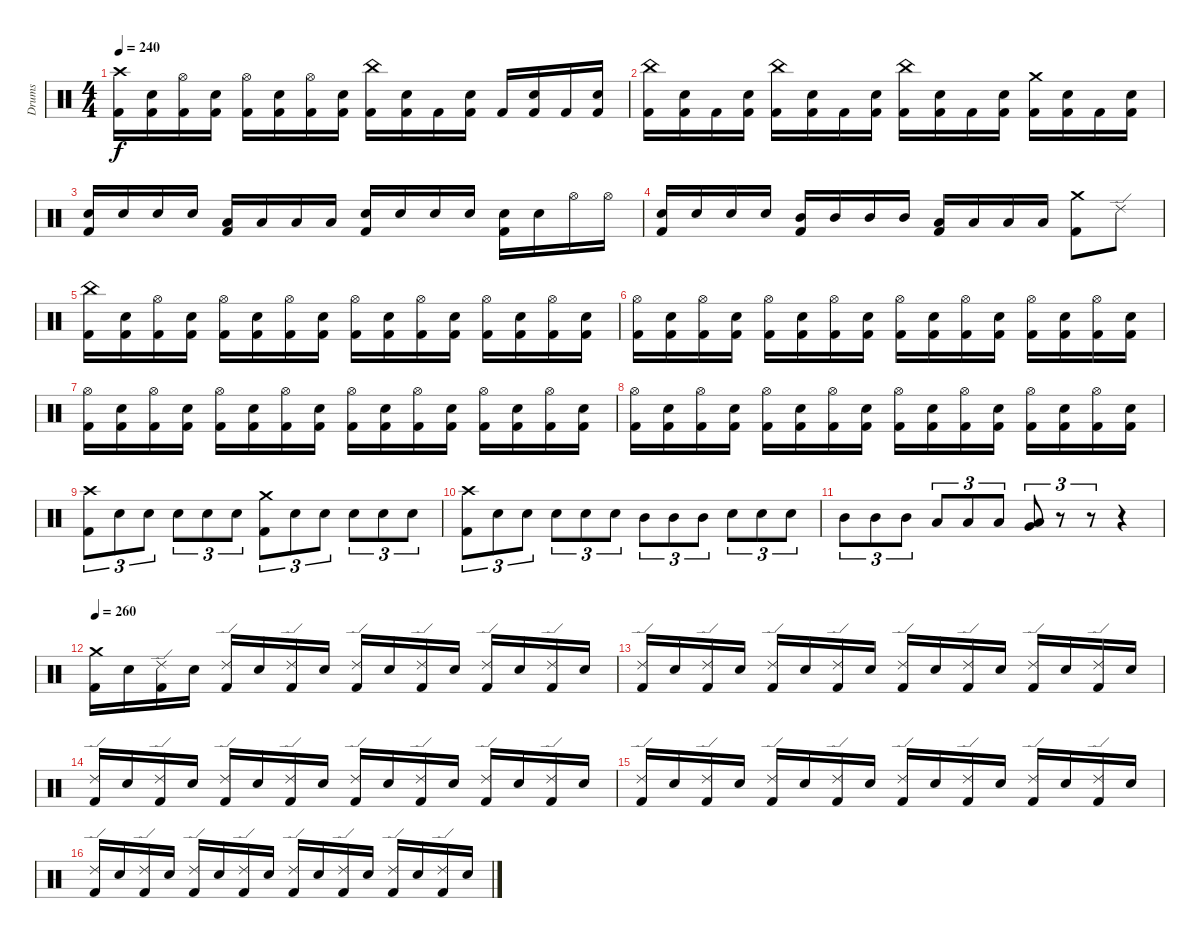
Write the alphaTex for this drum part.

\track ("Drums" "Drums") {instrument percussion}
\staff {score}
\articulation defaults
\ts (4 4)
\tempo 240
\clef neutral
\ks c
("Crash high (hit)" "Kick (hit) 2").16{dy f} ("Snare (hit) 2" "Kick (hit) 2").16 ("Hi-Hat (open)" "Kick (hit) 2").16 ("Snare (hit) 2" "Kick (hit) 2").16 ("Hi-Hat (open)" "Kick (hit) 2").16 ("Snare (hit) 2" "Kick (hit) 2").16 ("Hi-Hat (open)" "Kick (hit) 2").16 ("Snare (hit) 2" "Kick (hit) 2").16 ("China (hit)" "Kick (hit) 2").16 ("Snare (hit) 2" "Kick (hit) 2").16 "Kick (hit) 2".16 ("Snare (hit) 2" "Kick (hit) 2").16 "Kick (hit) 2".16 ("Snare (hit) 2" "Kick (hit) 2").16 "Kick (hit) 2".16 ("Snare (hit) 2" "Kick (hit) 2").16 |
("China (hit)" "Kick (hit) 2").16 ("Snare (hit) 2" "Kick (hit) 2").16 "Kick (hit) 2".16 ("Snare (hit) 2" "Kick (hit) 2").16 ("China (hit)" "Kick (hit) 2").16 ("Snare (hit) 2" "Kick (hit) 2").16 "Kick (hit) 2".16 ("Snare (hit) 2" "Kick (hit) 2").16 ("China (hit)" "Kick (hit) 2").16 ("Snare (hit) 2" "Kick (hit) 2").16 "Kick (hit) 2".16 ("Snare (hit) 2" "Kick (hit) 2").16 ("Crash medium (hit)" "Kick (hit) 2").16 ("Snare (hit) 2" "Kick (hit) 2").16 "Kick (hit) 2".16 ("Snare (hit) 2" "Kick (hit) 2").16 |
("Snare (hit) 2" "Kick (hit) 2").16 "Snare (hit) 2".16 "Snare (hit) 2".16 "Snare (hit) 2".16 ("Low Tom (hit)" "Kick (hit) 2").16 "Low Tom (hit)".16 "Low Tom (hit)".16 "Low Tom (hit)".16 ("Snare (hit) 2" "Kick (hit) 2").16 "Snare (hit) 2".16 "Snare (hit) 2".16 "Snare (hit) 2".16 ("Snare (hit) 2" "Kick (hit) 2").16 "Snare (hit) 2".16 "Hi-Hat (open)".16 "Hi-Hat (open)".16 |
("Snare (hit) 2" "Kick (hit) 2").16 "Snare (hit) 2".16 "Snare (hit) 2".16 "Snare (hit) 2".16 ("Mid Tom (hit)" "Kick (hit) 2").16 "Mid Tom (hit)".16 "Mid Tom (hit)".16 "Mid Tom (hit)".16 ("Low Tom (hit)" "Kick (hit) 2").16 "Low Tom (hit)".16 "Low Tom (hit)".16 "Low Tom (hit)".16 ("Crash medium (hit)" "Kick (hit) 2").8 "Ride (edge) 2".8 |
("China (hit)" "Kick (hit) 2").16 ("Snare (hit) 2" "Kick (hit) 2").16 ("Hi-Hat (open)" "Kick (hit) 2").16 ("Snare (hit) 2" "Kick (hit) 2").16 ("Hi-Hat (open)" "Kick (hit) 2").16 ("Snare (hit) 2" "Kick (hit) 2").16 ("Hi-Hat (open)" "Kick (hit) 2").16 ("Snare (hit) 2" "Kick (hit) 2").16 ("Hi-Hat (open)" "Kick (hit) 2").16 ("Snare (hit) 2" "Kick (hit) 2").16 ("Hi-Hat (open)" "Kick (hit) 2").16 ("Snare (hit) 2" "Kick (hit) 2").16 ("Hi-Hat (open)" "Kick (hit) 2").16 ("Snare (hit) 2" "Kick (hit) 2").16 ("Hi-Hat (open)" "Kick (hit) 2").16 ("Snare (hit) 2" "Kick (hit) 2").16 |
("Hi-Hat (open)" "Kick (hit) 2").16 ("Snare (hit) 2" "Kick (hit) 2").16 ("Hi-Hat (open)" "Kick (hit) 2").16 ("Snare (hit) 2" "Kick (hit) 2").16 ("Hi-Hat (open)" "Kick (hit) 2").16 ("Snare (hit) 2" "Kick (hit) 2").16 ("Hi-Hat (open)" "Kick (hit) 2").16 ("Snare (hit) 2" "Kick (hit) 2").16 ("Hi-Hat (open)" "Kick (hit) 2").16 ("Snare (hit) 2" "Kick (hit) 2").16 ("Hi-Hat (open)" "Kick (hit) 2").16 ("Snare (hit) 2" "Kick (hit) 2").16 ("Hi-Hat (open)" "Kick (hit) 2").16 ("Snare (hit) 2" "Kick (hit) 2").16 ("Hi-Hat (open)" "Kick (hit) 2").16 ("Snare (hit) 2" "Kick (hit) 2").16 |
("Hi-Hat (open)" "Kick (hit) 2").16 ("Snare (hit) 2" "Kick (hit) 2").16 ("Hi-Hat (open)" "Kick (hit) 2").16 ("Snare (hit) 2" "Kick (hit) 2").16 ("Hi-Hat (open)" "Kick (hit) 2").16 ("Snare (hit) 2" "Kick (hit) 2").16 ("Hi-Hat (open)" "Kick (hit) 2").16 ("Snare (hit) 2" "Kick (hit) 2").16 ("Hi-Hat (open)" "Kick (hit) 2").16 ("Snare (hit) 2" "Kick (hit) 2").16 ("Hi-Hat (open)" "Kick (hit) 2").16 ("Snare (hit) 2" "Kick (hit) 2").16 ("Hi-Hat (open)" "Kick (hit) 2").16 ("Snare (hit) 2" "Kick (hit) 2").16 ("Hi-Hat (open)" "Kick (hit) 2").16 ("Snare (hit) 2" "Kick (hit) 2").16 |
("Hi-Hat (open)" "Kick (hit) 2").16 ("Snare (hit) 2" "Kick (hit) 2").16 ("Hi-Hat (open)" "Kick (hit) 2").16 ("Snare (hit) 2" "Kick (hit) 2").16 ("Hi-Hat (open)" "Kick (hit) 2").16 ("Snare (hit) 2" "Kick (hit) 2").16 ("Hi-Hat (open)" "Kick (hit) 2").16 ("Snare (hit) 2" "Kick (hit) 2").16 ("Hi-Hat (open)" "Kick (hit) 2").16 ("Snare (hit) 2" "Kick (hit) 2").16 ("Hi-Hat (open)" "Kick (hit) 2").16 ("Snare (hit) 2" "Kick (hit) 2").16 ("Hi-Hat (open)" "Kick (hit) 2").16 ("Snare (hit) 2" "Kick (hit) 2").16 ("Hi-Hat (open)" "Kick (hit) 2").16 ("Snare (hit) 2" "Kick (hit) 2").16 |
("Crash high (hit)" "Kick (hit) 2").8{tu (3 2)} "Snare (hit) 2".8{tu (3 2)} "Snare (hit) 2".8{tu (3 2)} "Snare (hit) 2".8{tu (3 2)} "Snare (hit) 2".8{tu (3 2)} "Snare (hit) 2".8{tu (3 2)} ("Crash medium (hit)" "Kick (hit) 2").8{tu (3 2)} "Snare (hit) 2".8{tu (3 2)} "Snare (hit) 2".8{tu (3 2)} "Snare (hit) 2".8{tu (3 2)} "Snare (hit) 2".8{tu (3 2)} "Snare (hit) 2".8{tu (3 2)} |
("Crash high (hit)" "Kick (hit) 2").8{tu (3 2)} "Snare (hit) 2".8{tu (3 2)} "Snare (hit) 2".8{tu (3 2)} "Snare (hit) 2".8{tu (3 2)} "Snare (hit) 2".8{tu (3 2)} "Snare (hit) 2".8{tu (3 2)} "Mid Tom (hit)".8{tu (3 2)} "Mid Tom (hit)".8{tu (3 2)} "Mid Tom (hit)".8{tu (3 2)} "Snare (hit) 2".8{tu (3 2)} "Snare (hit) 2".8{tu (3 2)} "Snare (hit) 2".8{tu (3 2)} |
"Mid Tom (hit)".8{tu (3 2)} "Mid Tom (hit)".8{tu (3 2)} "Mid Tom (hit)".8{tu (3 2)} "Low Tom (hit)".8{tu (3 2)} "Low Tom (hit)".8{tu (3 2)} "Low Tom (hit)".8{tu (3 2)} ("Very Low Tom (hit)" "Low Floor Tom (hit)").8{tu (3 2)} r.8{tu (3 2)} r.8{tu (3 2)} r.4 |
\tempo 260
("Crash medium (hit)" "Kick (hit) 2").16 "Snare (hit) 2".16 ("Ride (edge) 2" "Kick (hit) 2").16 "Snare (hit) 2".16 ("Ride (edge) 2" "Kick (hit) 2").16 "Snare (hit) 2".16 ("Ride (edge) 2" "Kick (hit) 2").16 "Snare (hit) 2".16 ("Ride (edge) 2" "Kick (hit) 2").16 "Snare (hit) 2".16 ("Ride (edge) 2" "Kick (hit) 2").16 "Snare (hit) 2".16 ("Ride (edge) 2" "Kick (hit) 2").16 "Snare (hit) 2".16 ("Ride (edge) 2" "Kick (hit) 2").16 "Snare (hit) 2".16 |
("Ride (edge) 2" "Kick (hit) 2").16 "Snare (hit) 2".16 ("Ride (edge) 2" "Kick (hit) 2").16 "Snare (hit) 2".16 ("Ride (edge) 2" "Kick (hit) 2").16 "Snare (hit) 2".16 ("Ride (edge) 2" "Kick (hit) 2").16 "Snare (hit) 2".16 ("Ride (edge) 2" "Kick (hit) 2").16 "Snare (hit) 2".16 ("Ride (edge) 2" "Kick (hit) 2").16 "Snare (hit) 2".16 ("Ride (edge) 2" "Kick (hit) 2").16 "Snare (hit) 2".16 ("Ride (edge) 2" "Kick (hit) 2").16 "Snare (hit) 2".16 |
("Ride (edge) 2" "Kick (hit) 2").16 "Snare (hit) 2".16 ("Ride (edge) 2" "Kick (hit) 2").16 "Snare (hit) 2".16 ("Ride (edge) 2" "Kick (hit) 2").16 "Snare (hit) 2".16 ("Ride (edge) 2" "Kick (hit) 2").16 "Snare (hit) 2".16 ("Ride (edge) 2" "Kick (hit) 2").16 "Snare (hit) 2".16 ("Ride (edge) 2" "Kick (hit) 2").16 "Snare (hit) 2".16 ("Ride (edge) 2" "Kick (hit) 2").16 "Snare (hit) 2".16 ("Ride (edge) 2" "Kick (hit) 2").16 "Snare (hit) 2".16 |
("Ride (edge) 2" "Kick (hit) 2").16 "Snare (hit) 2".16 ("Ride (edge) 2" "Kick (hit) 2").16 "Snare (hit) 2".16 ("Ride (edge) 2" "Kick (hit) 2").16 "Snare (hit) 2".16 ("Ride (edge) 2" "Kick (hit) 2").16 "Snare (hit) 2".16 ("Ride (edge) 2" "Kick (hit) 2").16 "Snare (hit) 2".16 ("Ride (edge) 2" "Kick (hit) 2").16 "Snare (hit) 2".16 ("Ride (edge) 2" "Kick (hit) 2").16 "Snare (hit) 2".16 ("Ride (edge) 2" "Kick (hit) 2").16 "Snare (hit) 2".16 |
("Ride (edge) 2" "Kick (hit) 2").16 "Snare (hit) 2".16 ("Ride (edge) 2" "Kick (hit) 2").16 "Snare (hit) 2".16 ("Ride (edge) 2" "Kick (hit) 2").16 "Snare (hit) 2".16 ("Ride (edge) 2" "Kick (hit) 2").16 "Snare (hit) 2".16 ("Ride (edge) 2" "Kick (hit) 2").16 "Snare (hit) 2".16 ("Ride (edge) 2" "Kick (hit) 2").16 "Snare (hit) 2".16 ("Ride (edge) 2" "Kick (hit) 2").16 "Snare (hit) 2".16 ("Ride (edge) 2" "Kick (hit) 2").16 "Snare (hit) 2".16
